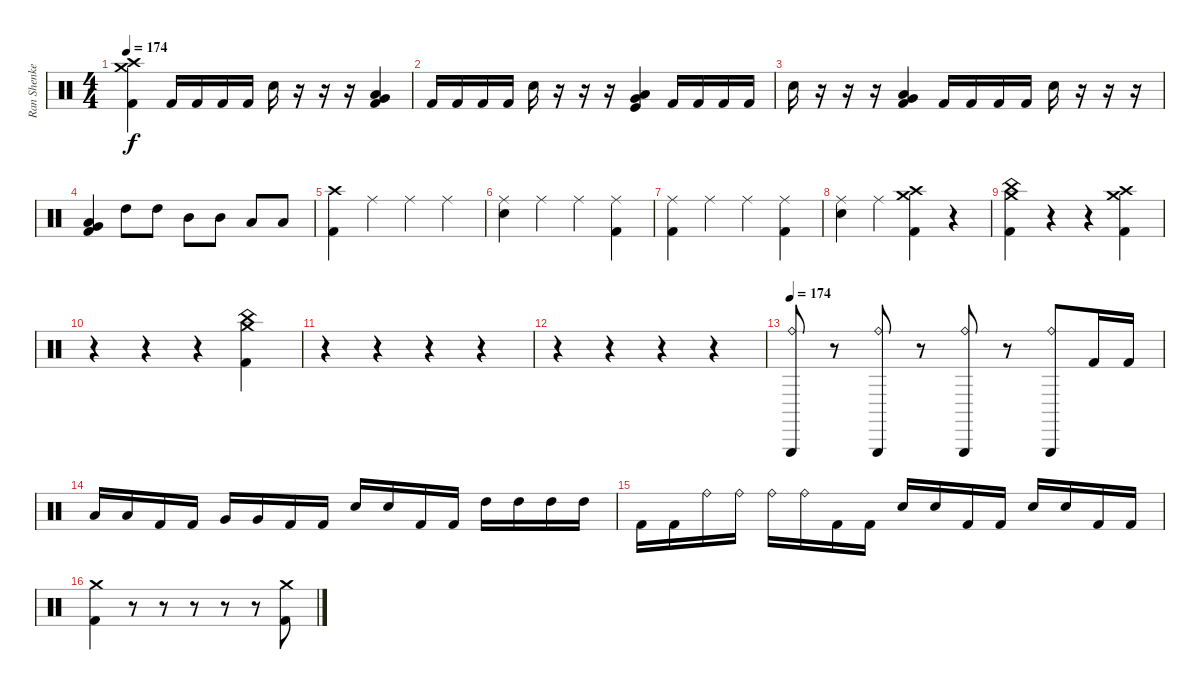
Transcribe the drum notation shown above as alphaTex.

\track ("Ran Shenkerman" "Ran Shenke") {instrument percussion}
\staff {score}
\articulation defaults
\ts (4 4)
\tempo 174
\clef neutral
\ks c
("Crash high (hit)" "Crash medium (hit)" "Kick (hit) 2").4{dy f} "Kick (hit) 2".16 "Kick (hit) 2".16 "Kick (hit) 2".16 "Kick (hit) 2".16 "Snare (hit) 2".16 r.16 r.16 r.16 ("Very Low Tom (hit)" "Low Floor Tom (hit)" "Kick (hit) 2").4 |
"Kick (hit) 2".16 "Kick (hit) 2".16 "Kick (hit) 2".16 "Kick (hit) 2".16 "Snare (hit) 2".16 r.16 r.16 r.16 ("Very Low Tom (hit)" "Low Floor Tom (hit)" "Kick (hit)").4 "Kick (hit) 2".16 "Kick (hit) 2".16 "Kick (hit) 2".16 "Kick (hit) 2".16 |
"Snare (hit) 2".16 r.16 r.16 r.16 ("Very Low Tom (hit)" "Low Floor Tom (hit)" "Kick (hit) 2").4 "Kick (hit) 2".16 "Kick (hit) 2".16 "Kick (hit) 2".16 "Kick (hit) 2".16 "Snare (hit) 2".16 r.16 r.16 r.16 |
("Very Low Tom (hit)" "Low Floor Tom (hit)" "Kick (hit) 2").4 "High Tom (hit)".8 "High Tom (hit)".8 "Mid Tom (hit)".8 "Mid Tom (hit)".8 "Low Tom (hit)".8 "Low Tom (hit)".8 |
("Crash high (hit)" "Kick (hit) 2").4 "Ride (middle)".4 "Ride (middle)".4 "Ride (middle)".4 |
("Ride (middle)" "Snare (hit) 2").4 "Ride (middle)".4 "Ride (middle)".4 ("Ride (middle)" "Kick (hit) 2").4 |
("Ride (middle)" "Kick (hit) 2").4 "Ride (middle)".4 "Ride (middle)".4 ("Ride (middle)" "Kick (hit) 2").4 |
("Ride (middle)" "Snare (hit) 2").4 "Ride (middle)".4 ("Crash high (hit)" "Crash medium (hit)" "Kick (hit) 2").4 r.4 |
("Crash medium (hit)" "China (hit)" "Kick (hit) 2").4 r.4 r.4 ("Crash high (hit)" "Crash medium (hit)" "Kick (hit) 2").4 |
r.4 r.4 r.4 ("Crash medium (hit)" "China (hit)" "Kick (hit) 2").4 |
r.4 r.4 r.4 r.4 |
r.4 r.4 r.4 r.4 |
\tempo 174
("Ride (bell)" "Triangle (hit)").8 r.8 ("Ride (bell)" "Triangle (hit)").8 r.8 ("Ride (bell)" "Triangle (hit)").8 r.8 ("Triangle (hit)" "Ride (bell)").8 "Kick (hit) 2".16 "Kick (hit) 2".16 |
"Low Tom (hit)".16 "Low Tom (hit)".16 "Kick (hit) 2".16 "Kick (hit) 2".16 "Very Low Tom (hit)".16 "Very Low Tom (hit)".16 "Kick (hit) 2".16 "Kick (hit) 2".16 "Snare (hit) 2".16 "Snare (hit) 2".16 "Kick (hit) 2".16 "Kick (hit) 2".16 "High Tom (hit)".16 "High Tom (hit)".16 "High Tom (hit)".16 "High Tom (hit)".16 |
"Kick (hit) 2".16 "Kick (hit) 2".16 "Ride (bell)".16 "Ride (bell)".16 "Ride (bell)".16 "Ride (bell)".16 "Kick (hit) 2".16 "Kick (hit) 2".16 "Snare (hit) 2".16 "Snare (hit) 2".16 "Kick (hit) 2".16 "Kick (hit) 2".16 "Snare (hit) 2".16 "Snare (hit) 2".16 "Kick (hit) 2".16 "Kick (hit) 2".16 |
("Crash medium (hit)" "Kick (hit) 2").4 r.8 r.8 r.8 r.8 r.8 ("Crash medium (hit)" "Kick (hit) 2").8
